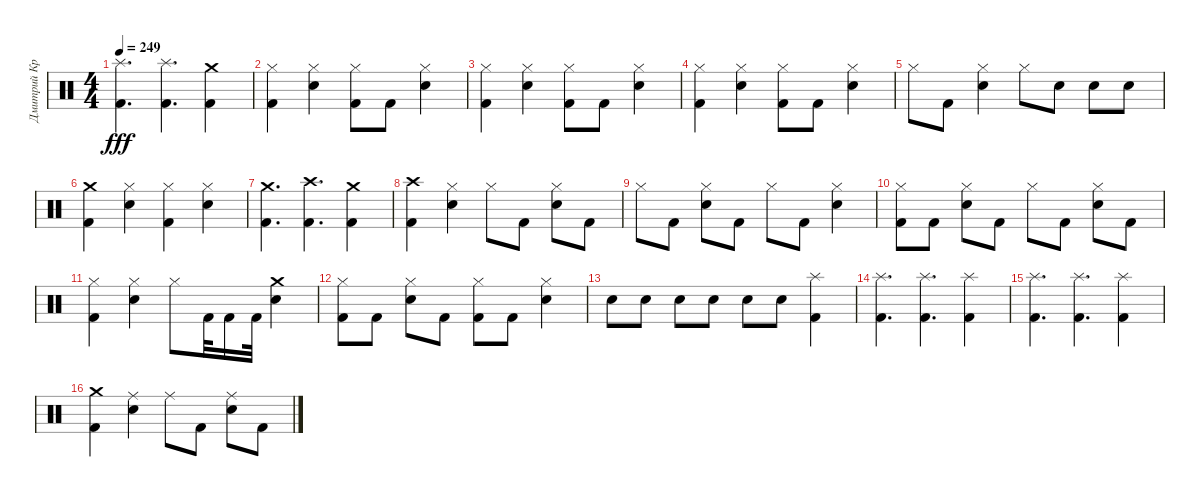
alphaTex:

\track ("Дмитрий Кривенков" "Дмитрий Кр") {instrument percussion}
\staff {score}
\articulation defaults
\ts (4 4)
\tempo 249
\clef neutral
\ks c
("Kick (hit) 2" "Splash (hit)").4{d dy fff} ("Kick (hit) 2" "Splash (hit)").4{d} ("Kick (hit) 2" "Crash medium (hit)").4 |
("Kick (hit) 2" "Hi-Hat (closed)").4 ("Electric Snare (hit)" "Hi-Hat (closed)").4 ("Kick (hit) 2" "Hi-Hat (closed)").8 "Kick (hit) 2".8 ("Electric Snare (hit)" "Hi-Hat (closed)").4 |
("Kick (hit) 2" "Hi-Hat (closed)").4 ("Electric Snare (hit)" "Hi-Hat (closed)").4 ("Kick (hit) 2" "Hi-Hat (closed)").8 "Kick (hit) 2".8 ("Electric Snare (hit)" "Hi-Hat (closed)").4 |
("Kick (hit) 2" "Hi-Hat (closed)").4 ("Electric Snare (hit)" "Hi-Hat (closed)").4 ("Kick (hit) 2" "Hi-Hat (closed)").8 "Kick (hit) 2".8 ("Electric Snare (hit)" "Hi-Hat (closed)").4 |
"Hi-Hat (closed)".8 "Kick (hit) 2".8 ("Hi-Hat (closed)" "Electric Snare (hit)").4 "Hi-Hat (closed)".8 "Electric Snare (hit)".8 "Electric Snare (hit)".8 "Electric Snare (hit)".8 |
("Kick (hit) 2" "Crash medium (hit)").4 ("Hi-Hat (closed)" "Electric Snare (hit)").4 ("Kick (hit) 2" "Hi-Hat (closed)").4 ("Hi-Hat (closed)" "Electric Snare (hit)").4 |
("Kick (hit) 2" "Crash medium (hit)").4{d} ("Kick (hit) 2" "Crash high (hit)").4{d} ("Kick (hit) 2" "Crash medium (hit)").4 |
("Kick (hit) 2" "Crash high (hit)").4 ("Hi-Hat (closed)" "Electric Snare (hit)").4 "Hi-Hat (closed)".8 "Kick (hit) 2".8 ("Hi-Hat (closed)" "Electric Snare (hit)").8 "Kick (hit) 2".8 |
"Hi-Hat (closed)".8 "Kick (hit) 2".8 ("Hi-Hat (closed)" "Electric Snare (hit)").8 "Kick (hit) 2".8 "Hi-Hat (closed)".8 "Kick (hit) 2".8 ("Hi-Hat (closed)" "Electric Snare (hit)").4 |
("Kick (hit) 2" "Hi-Hat (closed)").8 "Kick (hit) 2".8 ("Hi-Hat (closed)" "Electric Snare (hit)").8 "Kick (hit) 2".8 "Hi-Hat (closed)".8 "Kick (hit) 2".8 ("Hi-Hat (closed)" "Electric Snare (hit)").8 "Kick (hit) 2".8 |
("Kick (hit) 2" "Hi-Hat (closed)").4 ("Hi-Hat (closed)" "Electric Snare (hit)").4 "Hi-Hat (closed)".8 "Kick (hit) 2".32 "Kick (hit) 2".16 "Kick (hit) 2".32 ("Crash medium (hit)" "Electric Snare (hit)").4 |
("Kick (hit) 2" "Hi-Hat (closed)").8 "Kick (hit) 2".8 ("Hi-Hat (closed)" "Electric Snare (hit)").8 "Kick (hit) 2".8 ("Kick (hit) 2" "Hi-Hat (closed)").8 "Kick (hit) 2".8 ("Hi-Hat (closed)" "Electric Snare (hit)").4 |
"Electric Snare (hit)".8 "Electric Snare (hit)".8 "Electric Snare (hit)".8 "Electric Snare (hit)".8 "Electric Snare (hit)".8 "Electric Snare (hit)".8 ("Kick (hit) 2" "Splash (hit)").4 |
("Kick (hit) 2" "Splash (hit)").4{d} ("Kick (hit) 2" "Splash (hit)").4{d} ("Kick (hit) 2" "Splash (hit)").4 |
("Kick (hit) 2" "Splash (hit)").4{d} ("Kick (hit) 2" "Splash (hit)").4{d} ("Kick (hit) 2" "Splash (hit)").4 |
("Kick (hit) 2" "Crash medium (hit)").4 ("Electric Snare (hit)" "Ride (middle)").4 "Ride (middle)".8 "Kick (hit) 2".8 ("Electric Snare (hit)" "Ride (middle)").8 "Kick (hit) 2".8
